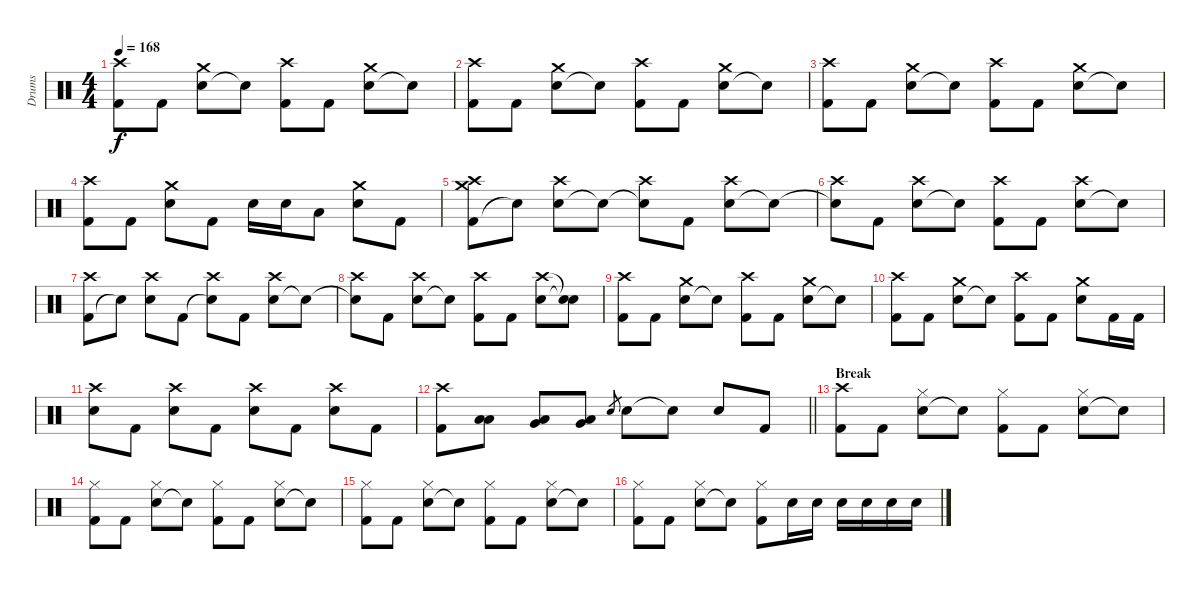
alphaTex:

\track ("Drums" "Drums") {instrument percussion}
\staff {score}
\articulation defaults
\ts (4 4)
\tempo 168
\clef neutral
\ks c
("Kick (hit) 2" "Crash high (hit)").8{dy f} "Kick (hit) 2".8 ("Electric Snare (hit)" "Crash medium (hit)").8 "Snare (hit)"{t}.8 ("Kick (hit) 2" "Crash high (hit)").8 "Kick (hit) 2".8 ("Electric Snare (hit)" "Crash medium (hit)").8 "Snare (hit)"{t}.8 |
("Kick (hit) 2" "Crash high (hit)").8 "Kick (hit) 2".8 ("Electric Snare (hit)" "Crash medium (hit)").8 "Snare (hit)"{t}.8 ("Kick (hit) 2" "Crash high (hit)").8 "Kick (hit) 2".8 ("Electric Snare (hit)" "Crash medium (hit)").8 "Snare (hit)"{t}.8 |
("Kick (hit) 2" "Crash high (hit)").8 "Kick (hit) 2".8 ("Electric Snare (hit)" "Crash medium (hit)").8 "Snare (hit)"{t}.8 ("Kick (hit) 2" "Crash high (hit)").8 "Kick (hit) 2".8 ("Electric Snare (hit)" "Crash medium (hit)").8 "Snare (hit)"{t}.8 |
("Kick (hit) 2" "Crash high (hit)").8 "Kick (hit) 2".8 ("Electric Snare (hit)" "Crash medium (hit)").8 "Kick (hit) 2".8 "Electric Snare (hit)".16 "Electric Snare (hit)".16 "Low Tom (hit)".8 ("Electric Snare (hit)" "Crash medium (hit)").8 "Kick (hit) 2".8 |
("Kick (hit) 2" "Crash medium (hit)" "Crash high (hit)").8 "Snare (hit)"{t}.8 ("Electric Snare (hit)" "Crash high (hit)").8 "Snare (hit)"{t}.8 ("Snare (hit)"{t} "Crash high (hit)").8 "Kick (hit) 2".8 ("Electric Snare (hit)" "Crash high (hit)").8 "Snare (hit)"{t}.8 |
("Snare (hit)"{t} "Crash high (hit)").8 "Kick (hit) 2".8 ("Electric Snare (hit)" "Crash high (hit)").8 "Snare (hit)"{t}.8 ("Kick (hit) 2" "Crash high (hit)").8 "Kick (hit) 2".8 ("Electric Snare (hit)" "Crash high (hit)").8 "Snare (hit)"{t}.8 |
("Kick (hit) 2" "Crash high (hit)").8 "Snare (hit)"{t}.8 ("Electric Snare (hit)" "Crash high (hit)").8 "Kick (hit) 2".8 ("Snare (hit)"{t} "Crash high (hit)").8 "Kick (hit) 2".8 ("Electric Snare (hit)" "Crash high (hit)").8 "Snare (hit)"{t}.8 |
("Snare (hit)"{t} "Crash high (hit)").8 "Kick (hit) 2".8 ("Electric Snare (hit)" "Crash high (hit)").8 "Snare (hit)"{t}.8 ("Kick (hit) 2" "Crash high (hit)").8 "Kick (hit) 2".8 ("Electric Snare (hit)" "Crash high (hit)").8 ("Snare (hit)"{t} "Snare (hit)"{t}).8 |
("Kick (hit) 2" "Crash high (hit)").8 "Kick (hit) 2".8 ("Electric Snare (hit)" "Crash medium (hit)").8 "Snare (hit)"{t}.8 ("Kick (hit) 2" "Crash high (hit)").8 "Kick (hit) 2".8 ("Electric Snare (hit)" "Crash medium (hit)").8 "Snare (hit)"{t}.8 |
("Kick (hit) 2" "Crash high (hit)").8 "Kick (hit) 2".8 ("Electric Snare (hit)" "Crash medium (hit)").8 "Snare (hit)"{t}.8 ("Kick (hit) 2" "Crash high (hit)").8 "Kick (hit) 2".8 ("Electric Snare (hit)" "Crash medium (hit)").8 "Kick (hit) 2".16 "Kick (hit) 2".16 |
("Electric Snare (hit)" "Crash high (hit)").8 "Kick (hit) 2".8 ("Electric Snare (hit)" "Crash high (hit)").8 "Kick (hit) 2".8 ("Electric Snare (hit)" "Crash high (hit)").8 "Kick (hit) 2".8 ("Electric Snare (hit)" "Crash high (hit)").8 "Kick (hit) 2".8 |
\barLineRight lightlight
("Kick (hit) 2" "Crash high (hit)").8 ("Low Tom (hit)" "Low Floor Tom (hit)").8 ("Very Low Tom (hit)" "Low Floor Tom (hit)").8 ("Very Low Tom (hit)" "Low Floor Tom (hit)").8 "Electric Snare (hit)".8{gr} "Electric Snare (hit)".8 "Snare (hit)"{t}.8 "Electric Snare (hit)".8 "Kick (hit) 2".8 |
\section ("" "Break")
("Kick (hit) 2" "Crash high (hit)").8 "Kick (hit) 2".8 ("Electric Snare (hit)" "Hi-Hat (closed)").8 "Snare (hit)"{t}.8 ("Kick (hit) 2" "Hi-Hat (closed)").8 "Kick (hit) 2".8 ("Electric Snare (hit)" "Hi-Hat (closed)").8 "Snare (hit)"{t}.8 |
("Kick (hit) 2" "Hi-Hat (closed)").8 "Kick (hit) 2".8 ("Electric Snare (hit)" "Hi-Hat (closed)").8 "Snare (hit)"{t}.8 ("Kick (hit) 2" "Hi-Hat (closed)").8 "Kick (hit) 2".8 ("Electric Snare (hit)" "Hi-Hat (closed)").8 "Snare (hit)"{t}.8 |
("Kick (hit) 2" "Hi-Hat (closed)").8 "Kick (hit) 2".8 ("Electric Snare (hit)" "Hi-Hat (closed)").8 "Snare (hit)"{t}.8 ("Kick (hit) 2" "Hi-Hat (closed)").8 "Kick (hit) 2".8 ("Electric Snare (hit)" "Hi-Hat (closed)").8 "Snare (hit)"{t}.8 |
("Kick (hit) 2" "Hi-Hat (closed)").8 "Kick (hit) 2".8 ("Electric Snare (hit)" "Hi-Hat (closed)").8 "Snare (hit)"{t}.8 ("Kick (hit) 2" "Hi-Hat (closed)").8 "Electric Snare (hit)".16 "Electric Snare (hit)".16 "Electric Snare (hit)".16 "Electric Snare (hit)".16 "Electric Snare (hit)".16 "Electric Snare (hit)".16
